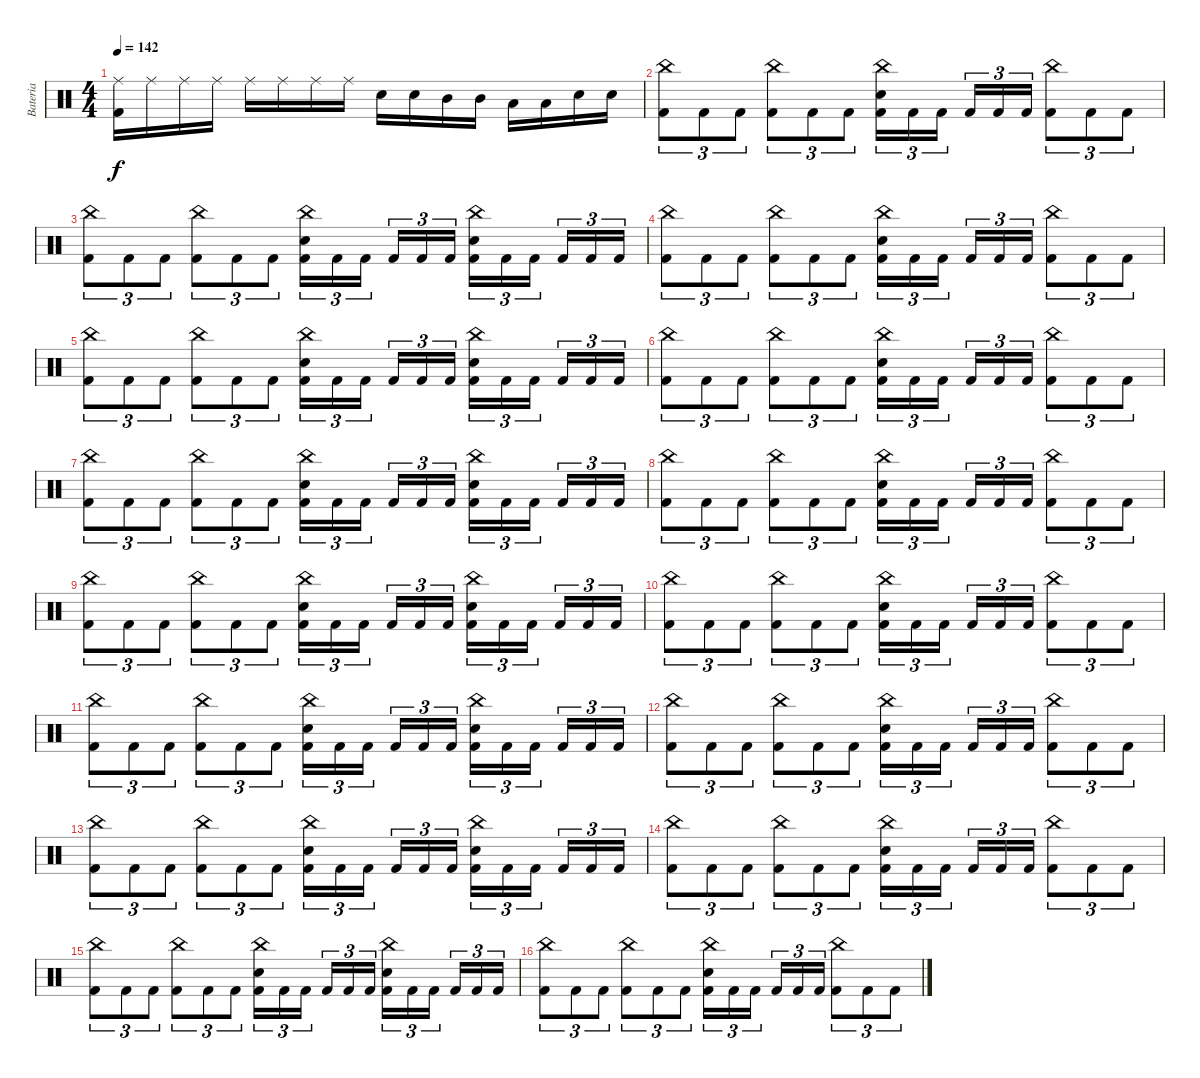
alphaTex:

\track ("Bateria" "Bateria") {instrument percussion}
\staff {score}
\articulation defaults
\ts (4 4)
\tempo 142
\clef neutral
\ks c
("Ride (middle)" "Kick (hit) 2").16{dy f} "Ride (middle)".16 "Ride (middle)".16 "Ride (middle)".16 "Ride (middle)".16 "Ride (middle)".16 "Ride (middle)".16 "Ride (middle)".16 "Snare (hit) 2".16 "Snare (hit) 2".16 "Mid Tom (hit)".16 "Mid Tom (hit)".16 "Low Tom (hit)".16 "Low Tom (hit)".16 "Snare (hit) 2".16 "Snare (hit) 2".16 |
("China (hit)" "Kick (hit) 2").8{tu (3 2)} "Kick (hit) 2".8{tu (3 2)} "Kick (hit) 2".8{tu (3 2)} ("China (hit)" "Kick (hit) 2").8{tu (3 2)} "Kick (hit) 2".8{tu (3 2)} "Kick (hit) 2".8{tu (3 2)} ("China (hit)" "Snare (hit) 2" "Kick (hit) 2").16{tu (3 2)} "Kick (hit) 2".16{tu (3 2)} "Kick (hit) 2".16{tu (3 2)} "Kick (hit) 2".16{tu (3 2)} "Kick (hit) 2".16{tu (3 2)} "Kick (hit) 2".16{tu (3 2)} ("China (hit)" "Kick (hit) 2").8{tu (3 2)} "Kick (hit) 2".8{tu (3 2)} "Kick (hit) 2".8{tu (3 2)} |
("China (hit)" "Kick (hit) 2").8{tu (3 2)} "Kick (hit) 2".8{tu (3 2)} "Kick (hit) 2".8{tu (3 2)} ("China (hit)" "Kick (hit) 2").8{tu (3 2)} "Kick (hit) 2".8{tu (3 2)} "Kick (hit) 2".8{tu (3 2)} ("China (hit)" "Snare (hit) 2" "Kick (hit) 2").16{tu (3 2)} "Kick (hit) 2".16{tu (3 2)} "Kick (hit) 2".16{tu (3 2)} "Kick (hit) 2".16{tu (3 2)} "Kick (hit) 2".16{tu (3 2)} "Kick (hit) 2".16{tu (3 2)} ("China (hit)" "Snare (hit) 2" "Kick (hit) 2").16{tu (3 2)} "Kick (hit) 2".16{tu (3 2)} "Kick (hit) 2".16{tu (3 2)} "Kick (hit) 2".16{tu (3 2)} "Kick (hit) 2".16{tu (3 2)} "Kick (hit) 2".16{tu (3 2)} |
("China (hit)" "Kick (hit) 2").8{tu (3 2)} "Kick (hit) 2".8{tu (3 2)} "Kick (hit) 2".8{tu (3 2)} ("China (hit)" "Kick (hit) 2").8{tu (3 2)} "Kick (hit) 2".8{tu (3 2)} "Kick (hit) 2".8{tu (3 2)} ("China (hit)" "Snare (hit) 2" "Kick (hit) 2").16{tu (3 2)} "Kick (hit) 2".16{tu (3 2)} "Kick (hit) 2".16{tu (3 2)} "Kick (hit) 2".16{tu (3 2)} "Kick (hit) 2".16{tu (3 2)} "Kick (hit) 2".16{tu (3 2)} ("China (hit)" "Kick (hit) 2").8{tu (3 2)} "Kick (hit) 2".8{tu (3 2)} "Kick (hit) 2".8{tu (3 2)} |
("China (hit)" "Kick (hit) 2").8{tu (3 2)} "Kick (hit) 2".8{tu (3 2)} "Kick (hit) 2".8{tu (3 2)} ("China (hit)" "Kick (hit) 2").8{tu (3 2)} "Kick (hit) 2".8{tu (3 2)} "Kick (hit) 2".8{tu (3 2)} ("China (hit)" "Snare (hit) 2" "Kick (hit) 2").16{tu (3 2)} "Kick (hit) 2".16{tu (3 2)} "Kick (hit) 2".16{tu (3 2)} "Kick (hit) 2".16{tu (3 2)} "Kick (hit) 2".16{tu (3 2)} "Kick (hit) 2".16{tu (3 2)} ("China (hit)" "Snare (hit) 2" "Kick (hit) 2").16{tu (3 2)} "Kick (hit) 2".16{tu (3 2)} "Kick (hit) 2".16{tu (3 2)} "Kick (hit) 2".16{tu (3 2)} "Kick (hit) 2".16{tu (3 2)} "Kick (hit) 2".16{tu (3 2)} |
("China (hit)" "Kick (hit) 2").8{tu (3 2)} "Kick (hit) 2".8{tu (3 2)} "Kick (hit) 2".8{tu (3 2)} ("China (hit)" "Kick (hit) 2").8{tu (3 2)} "Kick (hit) 2".8{tu (3 2)} "Kick (hit) 2".8{tu (3 2)} ("China (hit)" "Snare (hit) 2" "Kick (hit) 2").16{tu (3 2)} "Kick (hit) 2".16{tu (3 2)} "Kick (hit) 2".16{tu (3 2)} "Kick (hit) 2".16{tu (3 2)} "Kick (hit) 2".16{tu (3 2)} "Kick (hit) 2".16{tu (3 2)} ("China (hit)" "Kick (hit) 2").8{tu (3 2)} "Kick (hit) 2".8{tu (3 2)} "Kick (hit) 2".8{tu (3 2)} |
("China (hit)" "Kick (hit) 2").8{tu (3 2)} "Kick (hit) 2".8{tu (3 2)} "Kick (hit) 2".8{tu (3 2)} ("China (hit)" "Kick (hit) 2").8{tu (3 2)} "Kick (hit) 2".8{tu (3 2)} "Kick (hit) 2".8{tu (3 2)} ("China (hit)" "Snare (hit) 2" "Kick (hit) 2").16{tu (3 2)} "Kick (hit) 2".16{tu (3 2)} "Kick (hit) 2".16{tu (3 2)} "Kick (hit) 2".16{tu (3 2)} "Kick (hit) 2".16{tu (3 2)} "Kick (hit) 2".16{tu (3 2)} ("China (hit)" "Snare (hit) 2" "Kick (hit) 2").16{tu (3 2)} "Kick (hit) 2".16{tu (3 2)} "Kick (hit) 2".16{tu (3 2)} "Kick (hit) 2".16{tu (3 2)} "Kick (hit) 2".16{tu (3 2)} "Kick (hit) 2".16{tu (3 2)} |
("China (hit)" "Kick (hit) 2").8{tu (3 2)} "Kick (hit) 2".8{tu (3 2)} "Kick (hit) 2".8{tu (3 2)} ("China (hit)" "Kick (hit) 2").8{tu (3 2)} "Kick (hit) 2".8{tu (3 2)} "Kick (hit) 2".8{tu (3 2)} ("China (hit)" "Snare (hit) 2" "Kick (hit) 2").16{tu (3 2)} "Kick (hit) 2".16{tu (3 2)} "Kick (hit) 2".16{tu (3 2)} "Kick (hit) 2".16{tu (3 2)} "Kick (hit) 2".16{tu (3 2)} "Kick (hit) 2".16{tu (3 2)} ("China (hit)" "Kick (hit) 2").8{tu (3 2)} "Kick (hit) 2".8{tu (3 2)} "Kick (hit) 2".8{tu (3 2)} |
("China (hit)" "Kick (hit) 2").8{tu (3 2)} "Kick (hit) 2".8{tu (3 2)} "Kick (hit) 2".8{tu (3 2)} ("China (hit)" "Kick (hit) 2").8{tu (3 2)} "Kick (hit) 2".8{tu (3 2)} "Kick (hit) 2".8{tu (3 2)} ("China (hit)" "Snare (hit) 2" "Kick (hit) 2").16{tu (3 2)} "Kick (hit) 2".16{tu (3 2)} "Kick (hit) 2".16{tu (3 2)} "Kick (hit) 2".16{tu (3 2)} "Kick (hit) 2".16{tu (3 2)} "Kick (hit) 2".16{tu (3 2)} ("China (hit)" "Snare (hit) 2" "Kick (hit) 2").16{tu (3 2)} "Kick (hit) 2".16{tu (3 2)} "Kick (hit) 2".16{tu (3 2)} "Kick (hit) 2".16{tu (3 2)} "Kick (hit) 2".16{tu (3 2)} "Kick (hit) 2".16{tu (3 2)} |
("China (hit)" "Kick (hit) 2").8{tu (3 2)} "Kick (hit) 2".8{tu (3 2)} "Kick (hit) 2".8{tu (3 2)} ("China (hit)" "Kick (hit) 2").8{tu (3 2)} "Kick (hit) 2".8{tu (3 2)} "Kick (hit) 2".8{tu (3 2)} ("China (hit)" "Snare (hit) 2" "Kick (hit) 2").16{tu (3 2)} "Kick (hit) 2".16{tu (3 2)} "Kick (hit) 2".16{tu (3 2)} "Kick (hit) 2".16{tu (3 2)} "Kick (hit) 2".16{tu (3 2)} "Kick (hit) 2".16{tu (3 2)} ("China (hit)" "Kick (hit) 2").8{tu (3 2)} "Kick (hit) 2".8{tu (3 2)} "Kick (hit) 2".8{tu (3 2)} |
("China (hit)" "Kick (hit) 2").8{tu (3 2)} "Kick (hit) 2".8{tu (3 2)} "Kick (hit) 2".8{tu (3 2)} ("China (hit)" "Kick (hit) 2").8{tu (3 2)} "Kick (hit) 2".8{tu (3 2)} "Kick (hit) 2".8{tu (3 2)} ("China (hit)" "Snare (hit) 2" "Kick (hit) 2").16{tu (3 2)} "Kick (hit) 2".16{tu (3 2)} "Kick (hit) 2".16{tu (3 2)} "Kick (hit) 2".16{tu (3 2)} "Kick (hit) 2".16{tu (3 2)} "Kick (hit) 2".16{tu (3 2)} ("China (hit)" "Snare (hit) 2" "Kick (hit) 2").16{tu (3 2)} "Kick (hit) 2".16{tu (3 2)} "Kick (hit) 2".16{tu (3 2)} "Kick (hit) 2".16{tu (3 2)} "Kick (hit) 2".16{tu (3 2)} "Kick (hit) 2".16{tu (3 2)} |
("China (hit)" "Kick (hit) 2").8{tu (3 2)} "Kick (hit) 2".8{tu (3 2)} "Kick (hit) 2".8{tu (3 2)} ("China (hit)" "Kick (hit) 2").8{tu (3 2)} "Kick (hit) 2".8{tu (3 2)} "Kick (hit) 2".8{tu (3 2)} ("China (hit)" "Snare (hit) 2" "Kick (hit) 2").16{tu (3 2)} "Kick (hit) 2".16{tu (3 2)} "Kick (hit) 2".16{tu (3 2)} "Kick (hit) 2".16{tu (3 2)} "Kick (hit) 2".16{tu (3 2)} "Kick (hit) 2".16{tu (3 2)} ("China (hit)" "Kick (hit) 2").8{tu (3 2)} "Kick (hit) 2".8{tu (3 2)} "Kick (hit) 2".8{tu (3 2)} |
("China (hit)" "Kick (hit) 2").8{tu (3 2)} "Kick (hit) 2".8{tu (3 2)} "Kick (hit) 2".8{tu (3 2)} ("China (hit)" "Kick (hit) 2").8{tu (3 2)} "Kick (hit) 2".8{tu (3 2)} "Kick (hit) 2".8{tu (3 2)} ("China (hit)" "Snare (hit) 2" "Kick (hit) 2").16{tu (3 2)} "Kick (hit) 2".16{tu (3 2)} "Kick (hit) 2".16{tu (3 2)} "Kick (hit) 2".16{tu (3 2)} "Kick (hit) 2".16{tu (3 2)} "Kick (hit) 2".16{tu (3 2)} ("China (hit)" "Snare (hit) 2" "Kick (hit) 2").16{tu (3 2)} "Kick (hit) 2".16{tu (3 2)} "Kick (hit) 2".16{tu (3 2)} "Kick (hit) 2".16{tu (3 2)} "Kick (hit) 2".16{tu (3 2)} "Kick (hit) 2".16{tu (3 2)} |
("China (hit)" "Kick (hit) 2").8{tu (3 2)} "Kick (hit) 2".8{tu (3 2)} "Kick (hit) 2".8{tu (3 2)} ("China (hit)" "Kick (hit) 2").8{tu (3 2)} "Kick (hit) 2".8{tu (3 2)} "Kick (hit) 2".8{tu (3 2)} ("China (hit)" "Snare (hit) 2" "Kick (hit) 2").16{tu (3 2)} "Kick (hit) 2".16{tu (3 2)} "Kick (hit) 2".16{tu (3 2)} "Kick (hit) 2".16{tu (3 2)} "Kick (hit) 2".16{tu (3 2)} "Kick (hit) 2".16{tu (3 2)} ("China (hit)" "Kick (hit) 2").8{tu (3 2)} "Kick (hit) 2".8{tu (3 2)} "Kick (hit) 2".8{tu (3 2)} |
("China (hit)" "Kick (hit) 2").8{tu (3 2)} "Kick (hit) 2".8{tu (3 2)} "Kick (hit) 2".8{tu (3 2)} ("China (hit)" "Kick (hit) 2").8{tu (3 2)} "Kick (hit) 2".8{tu (3 2)} "Kick (hit) 2".8{tu (3 2)} ("China (hit)" "Snare (hit) 2" "Kick (hit) 2").16{tu (3 2)} "Kick (hit) 2".16{tu (3 2)} "Kick (hit) 2".16{tu (3 2)} "Kick (hit) 2".16{tu (3 2)} "Kick (hit) 2".16{tu (3 2)} "Kick (hit) 2".16{tu (3 2)} ("China (hit)" "Snare (hit) 2" "Kick (hit) 2").16{tu (3 2)} "Kick (hit) 2".16{tu (3 2)} "Kick (hit) 2".16{tu (3 2)} "Kick (hit) 2".16{tu (3 2)} "Kick (hit) 2".16{tu (3 2)} "Kick (hit) 2".16{tu (3 2)} |
("China (hit)" "Kick (hit) 2").8{tu (3 2)} "Kick (hit) 2".8{tu (3 2)} "Kick (hit) 2".8{tu (3 2)} ("China (hit)" "Kick (hit) 2").8{tu (3 2)} "Kick (hit) 2".8{tu (3 2)} "Kick (hit) 2".8{tu (3 2)} ("China (hit)" "Snare (hit) 2" "Kick (hit) 2").16{tu (3 2)} "Kick (hit) 2".16{tu (3 2)} "Kick (hit) 2".16{tu (3 2)} "Kick (hit) 2".16{tu (3 2)} "Kick (hit) 2".16{tu (3 2)} "Kick (hit) 2".16{tu (3 2)} ("China (hit)" "Kick (hit) 2").8{tu (3 2)} "Kick (hit) 2".8{tu (3 2)} "Kick (hit) 2".8{tu (3 2)}
